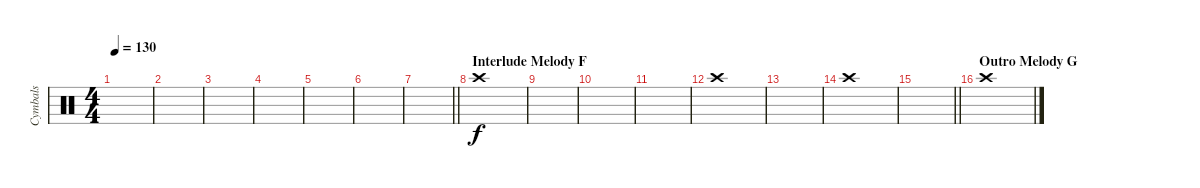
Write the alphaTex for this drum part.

\track ("Cymbals" "Cymbals") {instrument percussion}
\staff {score}
\articulation defaults
\ts (4 4)
\tempo 130
\clef neutral
\ks c
|
|
|
|
|
|
\barLineRight lightlight
|
\section ("" "Interlude Melody F")
"Crash high (hit)".1 |
|
|
|
"Crash high (hit)".1 |
|
"Crash high (hit)".1 |
\barLineRight lightlight
|
\section ("" "Outro Melody G")
"Crash high (hit)".1
